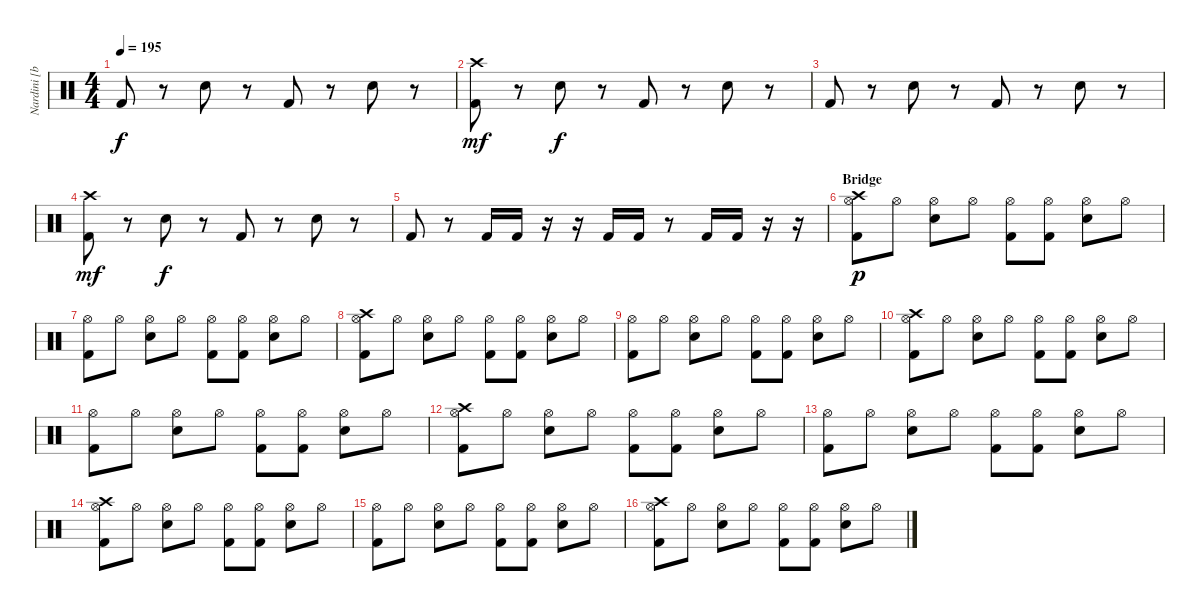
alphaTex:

\track ("Nardini [batteria]" "Nardini [b") {instrument percussion}
\staff {score}
\articulation defaults
\ts (4 4)
\tempo 195
\clef neutral
\ks c "Kick (hit) 2".8{dy f}
r.8 "Electric Snare (hit)".8 r.8 "Kick (hit) 2".8 r.8 "Electric Snare (hit)".8 r.8 |
("Crash high (hit)" "Kick (hit) 2").8{dy mf} r.8 "Electric Snare (hit)".8{dy f} r.8 "Kick (hit) 2".8 r.8 "Electric Snare (hit)".8 r.8 |
"Kick (hit) 2".8 r.8 "Electric Snare (hit)".8 r.8 "Kick (hit) 2".8 r.8 "Electric Snare (hit)".8 r.8 |
("Crash high (hit)" "Kick (hit) 2").8{dy mf} r.8 "Electric Snare (hit)".8{dy f} r.8 "Kick (hit) 2".8 r.8 "Electric Snare (hit)".8 r.8 |
"Kick (hit) 2".8 r.8 "Kick (hit) 2".16 "Kick (hit) 2".16 r.16 r.16 "Kick (hit) 2".16 "Kick (hit) 2".16 r.8 "Kick (hit) 2".16 "Kick (hit) 2".16 r.16 r.16 |
\section ("" "Bridge")
("Crash high (hit)" "Hi-Hat (open)" "Kick (hit) 2").8{dy p} "Hi-Hat (open)".8 ("Hi-Hat (open)" "Electric Snare (hit)").8 "Hi-Hat (open)".8 ("Hi-Hat (open)" "Kick (hit) 2").8 ("Hi-Hat (open)" "Kick (hit) 2").8 ("Hi-Hat (open)" "Electric Snare (hit)").8 "Hi-Hat (open)".8 |
("Hi-Hat (open)" "Kick (hit) 2").8 "Hi-Hat (open)".8 ("Hi-Hat (open)" "Electric Snare (hit)").8 "Hi-Hat (open)".8 ("Hi-Hat (open)" "Kick (hit) 2").8 ("Hi-Hat (open)" "Kick (hit) 2").8 ("Hi-Hat (open)" "Electric Snare (hit)").8 "Hi-Hat (open)".8 |
("Crash high (hit)" "Hi-Hat (open)" "Kick (hit) 2").8 "Hi-Hat (open)".8 ("Hi-Hat (open)" "Electric Snare (hit)").8 "Hi-Hat (open)".8 ("Hi-Hat (open)" "Kick (hit) 2").8 ("Hi-Hat (open)" "Kick (hit) 2").8 ("Hi-Hat (open)" "Electric Snare (hit)").8 "Hi-Hat (open)".8 |
("Hi-Hat (open)" "Kick (hit) 2").8 "Hi-Hat (open)".8 ("Hi-Hat (open)" "Electric Snare (hit)").8 "Hi-Hat (open)".8 ("Hi-Hat (open)" "Kick (hit) 2").8 ("Hi-Hat (open)" "Kick (hit) 2").8 ("Hi-Hat (open)" "Electric Snare (hit)").8 "Hi-Hat (open)".8 |
("Crash high (hit)" "Hi-Hat (open)" "Kick (hit) 2").8 "Hi-Hat (open)".8 ("Hi-Hat (open)" "Electric Snare (hit)").8 "Hi-Hat (open)".8 ("Hi-Hat (open)" "Kick (hit) 2").8 ("Hi-Hat (open)" "Kick (hit) 2").8 ("Hi-Hat (open)" "Electric Snare (hit)").8 "Hi-Hat (open)".8 |
("Hi-Hat (open)" "Kick (hit) 2").8 "Hi-Hat (open)".8 ("Hi-Hat (open)" "Electric Snare (hit)").8 "Hi-Hat (open)".8 ("Hi-Hat (open)" "Kick (hit) 2").8 ("Hi-Hat (open)" "Kick (hit) 2").8 ("Hi-Hat (open)" "Electric Snare (hit)").8 "Hi-Hat (open)".8 |
("Crash high (hit)" "Hi-Hat (open)" "Kick (hit) 2").8 "Hi-Hat (open)".8 ("Hi-Hat (open)" "Electric Snare (hit)").8 "Hi-Hat (open)".8 ("Hi-Hat (open)" "Kick (hit) 2").8 ("Hi-Hat (open)" "Kick (hit) 2").8 ("Hi-Hat (open)" "Electric Snare (hit)").8 "Hi-Hat (open)".8 |
("Hi-Hat (open)" "Kick (hit) 2").8 "Hi-Hat (open)".8 ("Hi-Hat (open)" "Electric Snare (hit)").8 "Hi-Hat (open)".8 ("Hi-Hat (open)" "Kick (hit) 2").8 ("Hi-Hat (open)" "Kick (hit) 2").8 ("Hi-Hat (open)" "Electric Snare (hit)").8 "Hi-Hat (open)".8 |
("Crash high (hit)" "Hi-Hat (open)" "Kick (hit) 2").8 "Hi-Hat (open)".8 ("Hi-Hat (open)" "Electric Snare (hit)").8 "Hi-Hat (open)".8 ("Hi-Hat (open)" "Kick (hit) 2").8 ("Hi-Hat (open)" "Kick (hit) 2").8 ("Hi-Hat (open)" "Electric Snare (hit)").8 "Hi-Hat (open)".8 |
("Hi-Hat (open)" "Kick (hit) 2").8 "Hi-Hat (open)".8 ("Hi-Hat (open)" "Electric Snare (hit)").8 "Hi-Hat (open)".8 ("Hi-Hat (open)" "Kick (hit) 2").8 ("Hi-Hat (open)" "Kick (hit) 2").8 ("Hi-Hat (open)" "Electric Snare (hit)").8 "Hi-Hat (open)".8 |
("Crash high (hit)" "Hi-Hat (open)" "Kick (hit) 2").8 "Hi-Hat (open)".8 ("Hi-Hat (open)" "Electric Snare (hit)").8 "Hi-Hat (open)".8 ("Hi-Hat (open)" "Kick (hit) 2").8 ("Hi-Hat (open)" "Kick (hit) 2").8 ("Hi-Hat (open)" "Electric Snare (hit)").8 "Hi-Hat (open)".8
